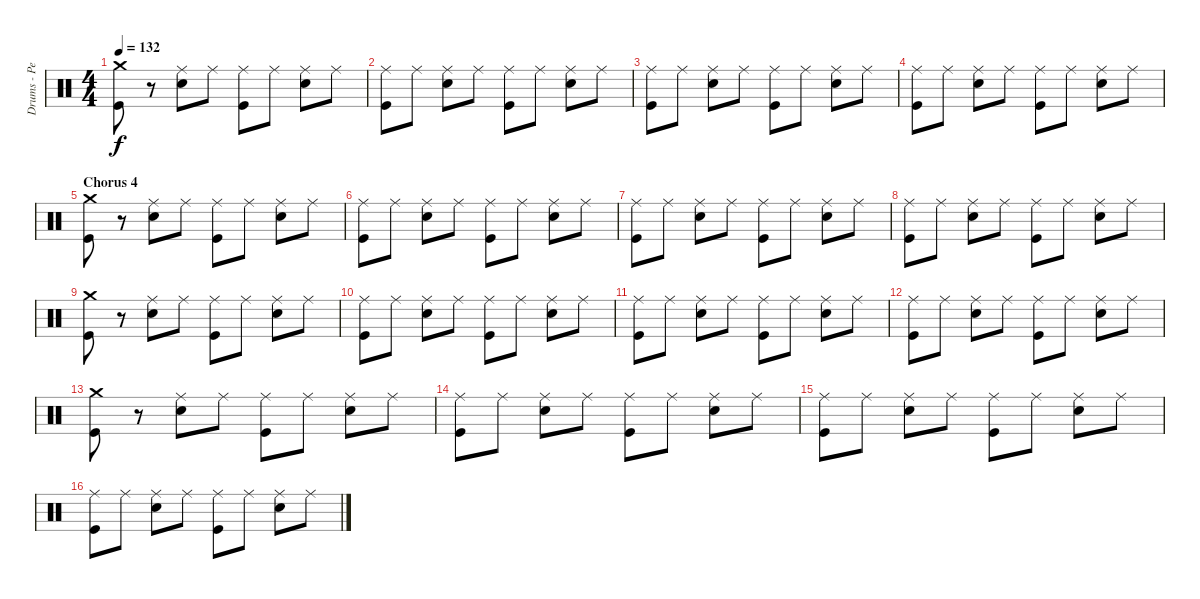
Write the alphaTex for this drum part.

\track ("Drums - Pete Gill" "Drums - Pe") {instrument percussion}
\staff {score}
\articulation defaults
\ts (4 4)
\tempo 132
\clef neutral
\ks c
("Crash medium (hit)" "Kick (hit)").8{dy f} r.8 ("Ride (middle)" "Snare (hit) 2").8 "Ride (middle)".8 ("Ride (middle)" "Kick (hit)").8 "Ride (middle)".8 ("Ride (middle)" "Snare (hit) 2").8 "Ride (middle)".8 |
("Ride (middle)" "Kick (hit)").8 "Ride (middle)".8 ("Ride (middle)" "Snare (hit) 2").8 "Ride (middle)".8 ("Ride (middle)" "Kick (hit)").8 "Ride (middle)".8 ("Ride (middle)" "Snare (hit) 2").8 "Ride (middle)".8 |
("Ride (middle)" "Kick (hit)").8 "Ride (middle)".8 ("Ride (middle)" "Snare (hit) 2").8 "Ride (middle)".8 ("Ride (middle)" "Kick (hit)").8 "Ride (middle)".8 ("Ride (middle)" "Snare (hit) 2").8 "Ride (middle)".8 |
("Ride (middle)" "Kick (hit)").8 "Ride (middle)".8 ("Ride (middle)" "Snare (hit) 2").8 "Ride (middle)".8 ("Ride (middle)" "Kick (hit)").8 "Ride (middle)".8 ("Ride (middle)" "Snare (hit) 2").8 "Ride (middle)".8 |
\section ("" "Chorus 4")
("Crash medium (hit)" "Kick (hit)").8 r.8 ("Ride (middle)" "Snare (hit) 2").8 "Ride (middle)".8 ("Ride (middle)" "Kick (hit)").8 "Ride (middle)".8 ("Ride (middle)" "Snare (hit) 2").8 "Ride (middle)".8 |
("Ride (middle)" "Kick (hit)").8 "Ride (middle)".8 ("Ride (middle)" "Snare (hit) 2").8 "Ride (middle)".8 ("Ride (middle)" "Kick (hit)").8 "Ride (middle)".8 ("Ride (middle)" "Snare (hit) 2").8 "Ride (middle)".8 |
("Ride (middle)" "Kick (hit)").8 "Ride (middle)".8 ("Ride (middle)" "Snare (hit) 2").8 "Ride (middle)".8 ("Ride (middle)" "Kick (hit)").8 "Ride (middle)".8 ("Ride (middle)" "Snare (hit) 2").8 "Ride (middle)".8 |
("Ride (middle)" "Kick (hit)").8 "Ride (middle)".8 ("Ride (middle)" "Snare (hit) 2").8 "Ride (middle)".8 ("Ride (middle)" "Kick (hit)").8 "Ride (middle)".8 ("Ride (middle)" "Snare (hit) 2").8 "Ride (middle)".8 |
("Crash medium (hit)" "Kick (hit)").8 r.8 ("Ride (middle)" "Snare (hit) 2").8 "Ride (middle)".8 ("Ride (middle)" "Kick (hit)").8 "Ride (middle)".8 ("Ride (middle)" "Snare (hit) 2").8 "Ride (middle)".8 |
("Ride (middle)" "Kick (hit)").8 "Ride (middle)".8 ("Ride (middle)" "Snare (hit) 2").8 "Ride (middle)".8 ("Ride (middle)" "Kick (hit)").8 "Ride (middle)".8 ("Ride (middle)" "Snare (hit) 2").8 "Ride (middle)".8 |
("Ride (middle)" "Kick (hit)").8 "Ride (middle)".8 ("Ride (middle)" "Snare (hit) 2").8 "Ride (middle)".8 ("Ride (middle)" "Kick (hit)").8 "Ride (middle)".8 ("Ride (middle)" "Snare (hit) 2").8 "Ride (middle)".8 |
("Ride (middle)" "Kick (hit)").8 "Ride (middle)".8 ("Ride (middle)" "Snare (hit) 2").8 "Ride (middle)".8 ("Ride (middle)" "Kick (hit)").8 "Ride (middle)".8 ("Ride (middle)" "Snare (hit) 2").8 "Ride (middle)".8 |
("Crash medium (hit)" "Kick (hit)").8 r.8 ("Ride (middle)" "Snare (hit) 2").8 "Ride (middle)".8 ("Ride (middle)" "Kick (hit)").8 "Ride (middle)".8 ("Ride (middle)" "Snare (hit) 2").8 "Ride (middle)".8 |
("Ride (middle)" "Kick (hit)").8 "Ride (middle)".8 ("Ride (middle)" "Snare (hit) 2").8 "Ride (middle)".8 ("Ride (middle)" "Kick (hit)").8 "Ride (middle)".8 ("Ride (middle)" "Snare (hit) 2").8 "Ride (middle)".8 |
("Ride (middle)" "Kick (hit)").8 "Ride (middle)".8 ("Ride (middle)" "Snare (hit) 2").8 "Ride (middle)".8 ("Ride (middle)" "Kick (hit)").8 "Ride (middle)".8 ("Ride (middle)" "Snare (hit) 2").8 "Ride (middle)".8 |
("Ride (middle)" "Kick (hit)").8 "Ride (middle)".8 ("Ride (middle)" "Snare (hit) 2").8 "Ride (middle)".8 ("Ride (middle)" "Kick (hit)").8 "Ride (middle)".8 ("Ride (middle)" "Snare (hit) 2").8 "Ride (middle)".8
